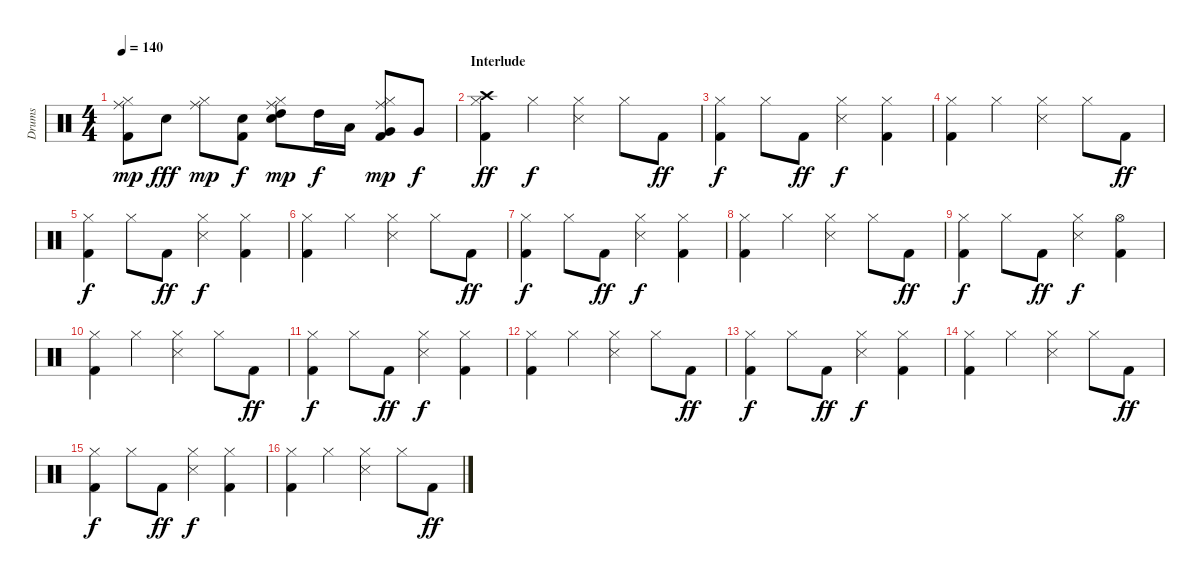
\track ("Drums" "Drums") {instrument percussion}
\staff {score}
\articulation defaults
\ts (4 4)
\tempo 140
\clef neutral
\ks c
("Kick (hit) 2" "Hi-Hat (closed)" "Ride (middle)").8{dy mp} "Snare (hit) 2".8{dy fff} ("Hi-Hat (closed)" "Ride (middle)").8{dy mp} ("Kick (hit) 2" "Snare (hit) 2").8{dy f} ("Snare (hit) 2" "Hi-Hat (closed)" "High Tom (hit)" "Ride (middle)").8{dy mp} "High Tom (hit)".16{dy f} "Low Tom (hit)".16 ("Kick (hit) 2" "Hi-Hat (closed)" "Very Low Tom (hit)" "Ride (middle)").8{dy mp} "Very Low Tom (hit)".8{dy f} |
\section ("" "Interlude")
("Kick (hit) 2" "Hi-Hat (closed)" "Crash high (hit)").4{dy ff} "Hi-Hat (closed)".4{dy f} ("Snare (side stick) 3" "Hi-Hat (closed)").4 "Hi-Hat (closed)".8 "Kick (hit) 2".8{dy ff} |
("Kick (hit) 2" "Hi-Hat (closed)").4{dy f} "Hi-Hat (closed)".8 "Kick (hit) 2".8{dy ff} ("Snare (side stick) 3" "Hi-Hat (closed)").4{dy f} ("Kick (hit) 2" "Hi-Hat (closed)").4 |
("Kick (hit) 2" "Hi-Hat (closed)").4 "Hi-Hat (closed)".4 ("Snare (side stick) 3" "Hi-Hat (closed)").4 "Hi-Hat (closed)".8 "Kick (hit) 2".8{dy ff} |
("Kick (hit) 2" "Hi-Hat (closed)").4{dy f} "Hi-Hat (closed)".8 "Kick (hit) 2".8{dy ff} ("Snare (side stick) 3" "Hi-Hat (closed)").4{dy f} ("Kick (hit) 2" "Hi-Hat (closed)").4 |
("Kick (hit) 2" "Hi-Hat (closed)").4 "Hi-Hat (closed)".4 ("Snare (side stick) 3" "Hi-Hat (closed)").4 "Hi-Hat (closed)".8 "Kick (hit) 2".8{dy ff} |
("Kick (hit) 2" "Hi-Hat (closed)").4{dy f} "Hi-Hat (closed)".8 "Kick (hit) 2".8{dy ff} ("Snare (side stick) 3" "Hi-Hat (closed)").4{dy f} ("Kick (hit) 2" "Hi-Hat (closed)").4 |
("Kick (hit) 2" "Hi-Hat (closed)").4 "Hi-Hat (closed)".4 ("Snare (side stick) 3" "Hi-Hat (closed)").4 "Hi-Hat (closed)".8 "Kick (hit) 2".8{dy ff} |
("Kick (hit) 2" "Hi-Hat (closed)").4{dy f} "Hi-Hat (closed)".8 "Kick (hit) 2".8{dy ff} ("Snare (side stick) 3" "Hi-Hat (closed)").4{dy f} ("Kick (hit) 2" "Hi-Hat (open)").4 |
("Kick (hit) 2" "Hi-Hat (closed)").4 "Hi-Hat (closed)".4 ("Snare (side stick) 3" "Hi-Hat (closed)").4 "Hi-Hat (closed)".8 "Kick (hit) 2".8{dy ff} |
("Kick (hit) 2" "Hi-Hat (closed)").4{dy f} "Hi-Hat (closed)".8 "Kick (hit) 2".8{dy ff} ("Snare (side stick) 3" "Hi-Hat (closed)").4{dy f} ("Kick (hit) 2" "Hi-Hat (closed)").4 |
("Kick (hit) 2" "Hi-Hat (closed)").4 "Hi-Hat (closed)".4 ("Snare (side stick) 3" "Hi-Hat (closed)").4 "Hi-Hat (closed)".8 "Kick (hit) 2".8{dy ff} |
("Kick (hit) 2" "Hi-Hat (closed)").4{dy f} "Hi-Hat (closed)".8 "Kick (hit) 2".8{dy ff} ("Snare (side stick) 3" "Hi-Hat (closed)").4{dy f} ("Kick (hit) 2" "Hi-Hat (closed)").4 |
("Kick (hit) 2" "Hi-Hat (closed)").4 "Hi-Hat (closed)".4 ("Snare (side stick) 3" "Hi-Hat (closed)").4 "Hi-Hat (closed)".8 "Kick (hit) 2".8{dy ff} |
("Kick (hit) 2" "Hi-Hat (closed)").4{dy f} "Hi-Hat (closed)".8 "Kick (hit) 2".8{dy ff} ("Snare (side stick) 3" "Hi-Hat (closed)").4{dy f} ("Kick (hit) 2" "Hi-Hat (closed)").4 |
("Kick (hit) 2" "Hi-Hat (closed)").4 "Hi-Hat (closed)".4 ("Snare (side stick) 3" "Hi-Hat (closed)").4 "Hi-Hat (closed)".8 "Kick (hit) 2".8{dy ff}
